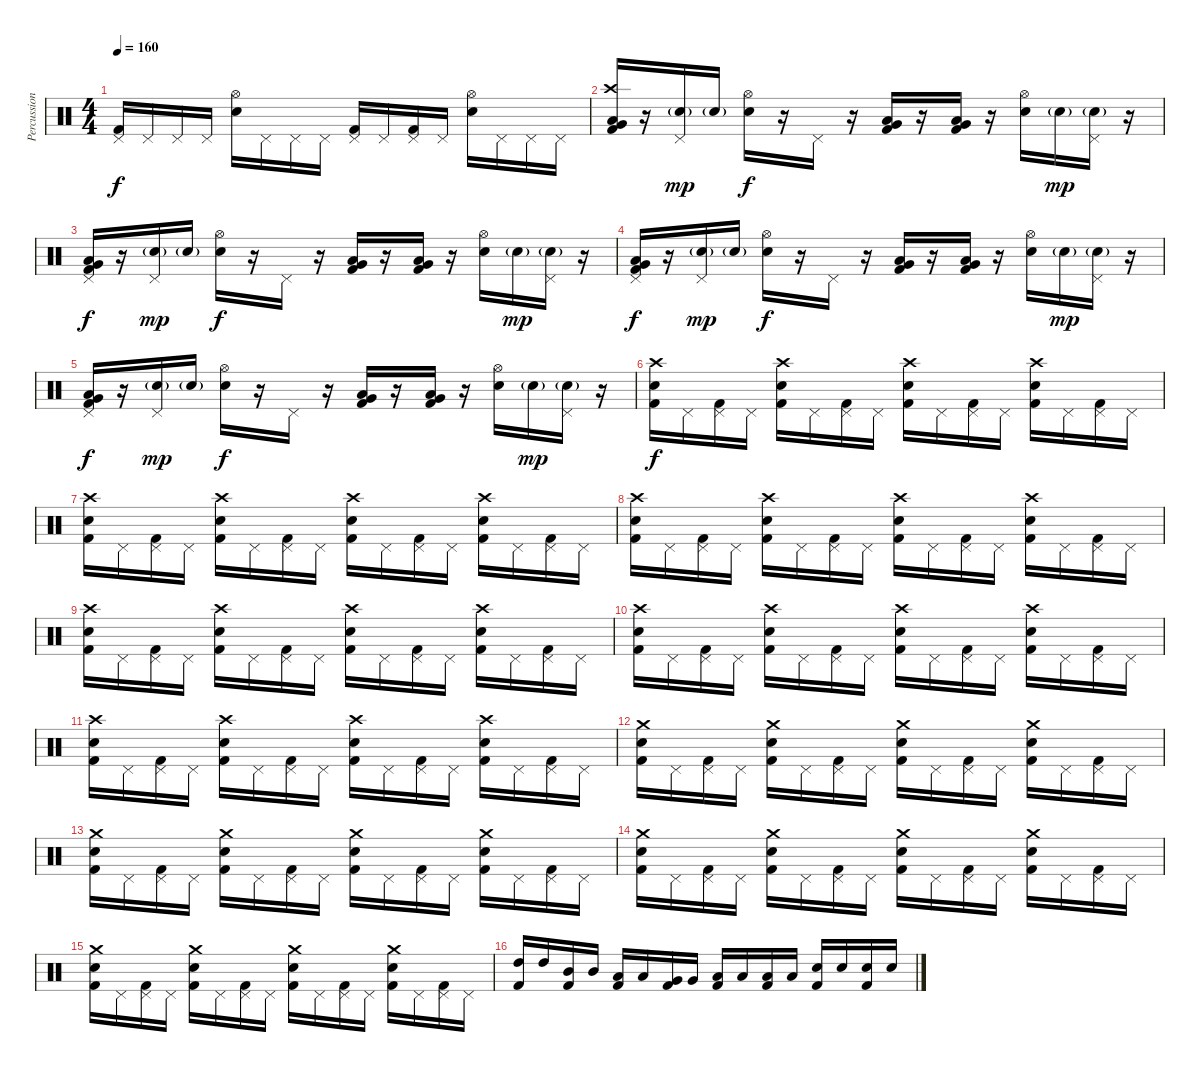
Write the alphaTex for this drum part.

\track ("Percussion" "Percussion") {instrument percussion}
\staff {score}
\articulation defaults
\ts (4 4)
\tempo 160
\clef neutral
\ks c
("Pedal Hi-Hat (hit)" "Kick (hit) 2").16{dy f} "Pedal Hi-Hat (hit)".16 "Pedal Hi-Hat (hit)".16 "Pedal Hi-Hat (hit)".16 ("Hi-Hat (open)" "Electric Snare (hit)").16 "Pedal Hi-Hat (hit)".16 "Pedal Hi-Hat (hit)".16 "Pedal Hi-Hat (hit)".16 ("Pedal Hi-Hat (hit)" "Kick (hit) 2").16 "Pedal Hi-Hat (hit)".16 ("Pedal Hi-Hat (hit)" "Kick (hit) 2").16 "Pedal Hi-Hat (hit)".16 ("Hi-Hat (open)" "Electric Snare (hit)").16 "Pedal Hi-Hat (hit)".16 "Pedal Hi-Hat (hit)".16 "Pedal Hi-Hat (hit)".16 |
("Crash high (hit)" "Low Tom (hit)" "Very Low Tom (hit)" "Kick (hit) 2").16 r.16 ("Pedal Hi-Hat (hit)" "Electric Snare (hit)"{g}).16{dy mp} "Electric Snare (hit)"{g}.16 ("Hi-Hat (open)" "Electric Snare (hit)").16{dy f} r.16 "Pedal Hi-Hat (hit)".16 r.16 ("Very Low Tom (hit)" "Low Floor Tom (hit)" "Kick (hit) 2").16 r.16 ("Very Low Tom (hit)" "Low Floor Tom (hit)" "Kick (hit) 2").16 r.16 ("Hi-Hat (open)" "Electric Snare (hit)").16 "Electric Snare (hit)"{g}.16{dy mp} ("Pedal Hi-Hat (hit)" "Electric Snare (hit)"{g}).16 r.16 |
("Pedal Hi-Hat (hit)" "Low Tom (hit)" "Very Low Tom (hit)" "Kick (hit) 2").16{dy f} r.16 ("Pedal Hi-Hat (hit)" "Electric Snare (hit)"{g}).16{dy mp} "Electric Snare (hit)"{g}.16 ("Hi-Hat (open)" "Electric Snare (hit)").16{dy f} r.16 "Pedal Hi-Hat (hit)".16 r.16 ("Very Low Tom (hit)" "Low Floor Tom (hit)" "Kick (hit) 2").16 r.16 ("Very Low Tom (hit)" "Low Floor Tom (hit)" "Kick (hit) 2").16 r.16 ("Hi-Hat (open)" "Electric Snare (hit)").16 "Electric Snare (hit)"{g}.16{dy mp} ("Pedal Hi-Hat (hit)" "Electric Snare (hit)"{g}).16 r.16 |
("Pedal Hi-Hat (hit)" "Low Tom (hit)" "Very Low Tom (hit)" "Kick (hit) 2").16{dy f} r.16 ("Pedal Hi-Hat (hit)" "Electric Snare (hit)"{g}).16{dy mp} "Electric Snare (hit)"{g}.16 ("Hi-Hat (open)" "Electric Snare (hit)").16{dy f} r.16 "Pedal Hi-Hat (hit)".16 r.16 ("Very Low Tom (hit)" "Low Floor Tom (hit)" "Kick (hit) 2").16 r.16 ("Very Low Tom (hit)" "Low Floor Tom (hit)" "Kick (hit) 2").16 r.16 ("Hi-Hat (open)" "Electric Snare (hit)").16 "Electric Snare (hit)"{g}.16{dy mp} ("Pedal Hi-Hat (hit)" "Electric Snare (hit)"{g}).16 r.16 |
("Pedal Hi-Hat (hit)" "Low Tom (hit)" "Very Low Tom (hit)" "Kick (hit) 2").16{dy f} r.16 ("Pedal Hi-Hat (hit)" "Electric Snare (hit)"{g}).16{dy mp} "Electric Snare (hit)"{g}.16 ("Hi-Hat (open)" "Electric Snare (hit)").16{dy f} r.16 "Pedal Hi-Hat (hit)".16 r.16 ("Very Low Tom (hit)" "Low Floor Tom (hit)" "Kick (hit) 2").16 r.16 ("Very Low Tom (hit)" "Low Floor Tom (hit)" "Kick (hit) 2").16 r.16 ("Hi-Hat (open)" "Electric Snare (hit)").16 "Electric Snare (hit)"{g}.16{dy mp} ("Pedal Hi-Hat (hit)" "Electric Snare (hit)"{g}).16 r.16 |
("Crash high (hit)" "Electric Snare (hit)" "Kick (hit) 2").16{dy f} "Pedal Hi-Hat (hit)".16 ("Pedal Hi-Hat (hit)" "Kick (hit) 2").16 "Pedal Hi-Hat (hit)".16 ("Crash high (hit)" "Electric Snare (hit)" "Kick (hit) 2").16 "Pedal Hi-Hat (hit)".16 ("Pedal Hi-Hat (hit)" "Kick (hit) 2").16 "Pedal Hi-Hat (hit)".16 ("Crash high (hit)" "Electric Snare (hit)" "Kick (hit) 2").16 "Pedal Hi-Hat (hit)".16 ("Pedal Hi-Hat (hit)" "Kick (hit) 2").16 "Pedal Hi-Hat (hit)".16 ("Crash high (hit)" "Electric Snare (hit)" "Kick (hit) 2").16 "Pedal Hi-Hat (hit)".16 ("Pedal Hi-Hat (hit)" "Kick (hit) 2").16 "Pedal Hi-Hat (hit)".16 |
("Crash high (hit)" "Electric Snare (hit)" "Kick (hit) 2").16 "Pedal Hi-Hat (hit)".16 ("Pedal Hi-Hat (hit)" "Kick (hit) 2").16 "Pedal Hi-Hat (hit)".16 ("Crash high (hit)" "Electric Snare (hit)" "Kick (hit) 2").16 "Pedal Hi-Hat (hit)".16 ("Pedal Hi-Hat (hit)" "Kick (hit) 2").16 "Pedal Hi-Hat (hit)".16 ("Crash high (hit)" "Electric Snare (hit)" "Kick (hit) 2").16 "Pedal Hi-Hat (hit)".16 ("Pedal Hi-Hat (hit)" "Kick (hit) 2").16 "Pedal Hi-Hat (hit)".16 ("Crash high (hit)" "Electric Snare (hit)" "Kick (hit) 2").16 "Pedal Hi-Hat (hit)".16 ("Pedal Hi-Hat (hit)" "Kick (hit) 2").16 "Pedal Hi-Hat (hit)".16 |
("Crash high (hit)" "Electric Snare (hit)" "Kick (hit) 2").16 "Pedal Hi-Hat (hit)".16 ("Pedal Hi-Hat (hit)" "Kick (hit) 2").16 "Pedal Hi-Hat (hit)".16 ("Crash high (hit)" "Electric Snare (hit)" "Kick (hit) 2").16 "Pedal Hi-Hat (hit)".16 ("Pedal Hi-Hat (hit)" "Kick (hit) 2").16 "Pedal Hi-Hat (hit)".16 ("Crash high (hit)" "Electric Snare (hit)" "Kick (hit) 2").16 "Pedal Hi-Hat (hit)".16 ("Pedal Hi-Hat (hit)" "Kick (hit) 2").16 "Pedal Hi-Hat (hit)".16 ("Crash high (hit)" "Electric Snare (hit)" "Kick (hit) 2").16 "Pedal Hi-Hat (hit)".16 ("Pedal Hi-Hat (hit)" "Kick (hit) 2").16 "Pedal Hi-Hat (hit)".16 |
("Crash high (hit)" "Electric Snare (hit)" "Kick (hit) 2").16 "Pedal Hi-Hat (hit)".16 ("Pedal Hi-Hat (hit)" "Kick (hit) 2").16 "Pedal Hi-Hat (hit)".16 ("Crash high (hit)" "Electric Snare (hit)" "Kick (hit) 2").16 "Pedal Hi-Hat (hit)".16 ("Pedal Hi-Hat (hit)" "Kick (hit) 2").16 "Pedal Hi-Hat (hit)".16 ("Crash high (hit)" "Electric Snare (hit)" "Kick (hit) 2").16 "Pedal Hi-Hat (hit)".16 ("Pedal Hi-Hat (hit)" "Kick (hit) 2").16 "Pedal Hi-Hat (hit)".16 ("Crash high (hit)" "Electric Snare (hit)" "Kick (hit) 2").16 "Pedal Hi-Hat (hit)".16 ("Pedal Hi-Hat (hit)" "Kick (hit) 2").16 "Pedal Hi-Hat (hit)".16 |
("Crash high (hit)" "Electric Snare (hit)" "Kick (hit) 2").16 "Pedal Hi-Hat (hit)".16 ("Pedal Hi-Hat (hit)" "Kick (hit) 2").16 "Pedal Hi-Hat (hit)".16 ("Crash high (hit)" "Electric Snare (hit)" "Kick (hit) 2").16 "Pedal Hi-Hat (hit)".16 ("Pedal Hi-Hat (hit)" "Kick (hit) 2").16 "Pedal Hi-Hat (hit)".16 ("Crash high (hit)" "Electric Snare (hit)" "Kick (hit) 2").16 "Pedal Hi-Hat (hit)".16 ("Pedal Hi-Hat (hit)" "Kick (hit) 2").16 "Pedal Hi-Hat (hit)".16 ("Crash high (hit)" "Electric Snare (hit)" "Kick (hit) 2").16 "Pedal Hi-Hat (hit)".16 ("Pedal Hi-Hat (hit)" "Kick (hit) 2").16 "Pedal Hi-Hat (hit)".16 |
("Crash high (hit)" "Electric Snare (hit)" "Kick (hit) 2").16 "Pedal Hi-Hat (hit)".16 ("Pedal Hi-Hat (hit)" "Kick (hit) 2").16 "Pedal Hi-Hat (hit)".16 ("Crash high (hit)" "Electric Snare (hit)" "Kick (hit) 2").16 "Pedal Hi-Hat (hit)".16 ("Pedal Hi-Hat (hit)" "Kick (hit) 2").16 "Pedal Hi-Hat (hit)".16 ("Crash high (hit)" "Electric Snare (hit)" "Kick (hit) 2").16 "Pedal Hi-Hat (hit)".16 ("Pedal Hi-Hat (hit)" "Kick (hit) 2").16 "Pedal Hi-Hat (hit)".16 ("Crash high (hit)" "Electric Snare (hit)" "Kick (hit) 2").16 "Pedal Hi-Hat (hit)".16 ("Pedal Hi-Hat (hit)" "Kick (hit) 2").16 "Pedal Hi-Hat (hit)".16 |
("Crash medium (hit)" "Electric Snare (hit)" "Kick (hit) 2").16 "Pedal Hi-Hat (hit)".16 ("Pedal Hi-Hat (hit)" "Kick (hit) 2").16 "Pedal Hi-Hat (hit)".16 ("Crash medium (hit)" "Electric Snare (hit)" "Kick (hit) 2").16 "Pedal Hi-Hat (hit)".16 ("Pedal Hi-Hat (hit)" "Kick (hit) 2").16 "Pedal Hi-Hat (hit)".16 ("Crash medium (hit)" "Electric Snare (hit)" "Kick (hit) 2").16 "Pedal Hi-Hat (hit)".16 ("Pedal Hi-Hat (hit)" "Kick (hit) 2").16 "Pedal Hi-Hat (hit)".16 ("Crash medium (hit)" "Electric Snare (hit)" "Kick (hit) 2").16 "Pedal Hi-Hat (hit)".16 ("Pedal Hi-Hat (hit)" "Kick (hit) 2").16 "Pedal Hi-Hat (hit)".16 |
("Crash medium (hit)" "Electric Snare (hit)" "Kick (hit) 2").16 "Pedal Hi-Hat (hit)".16 ("Pedal Hi-Hat (hit)" "Kick (hit) 2").16 "Pedal Hi-Hat (hit)".16 ("Crash medium (hit)" "Electric Snare (hit)" "Kick (hit) 2").16 "Pedal Hi-Hat (hit)".16 ("Pedal Hi-Hat (hit)" "Kick (hit) 2").16 "Pedal Hi-Hat (hit)".16 ("Crash medium (hit)" "Electric Snare (hit)" "Kick (hit) 2").16 "Pedal Hi-Hat (hit)".16 ("Pedal Hi-Hat (hit)" "Kick (hit) 2").16 "Pedal Hi-Hat (hit)".16 ("Crash medium (hit)" "Electric Snare (hit)" "Kick (hit) 2").16 "Pedal Hi-Hat (hit)".16 ("Pedal Hi-Hat (hit)" "Kick (hit) 2").16 "Pedal Hi-Hat (hit)".16 |
("Crash medium (hit)" "Electric Snare (hit)" "Kick (hit) 2").16 "Pedal Hi-Hat (hit)".16 ("Pedal Hi-Hat (hit)" "Kick (hit) 2").16 "Pedal Hi-Hat (hit)".16 ("Crash medium (hit)" "Electric Snare (hit)" "Kick (hit) 2").16 "Pedal Hi-Hat (hit)".16 ("Pedal Hi-Hat (hit)" "Kick (hit) 2").16 "Pedal Hi-Hat (hit)".16 ("Crash medium (hit)" "Electric Snare (hit)" "Kick (hit) 2").16 "Pedal Hi-Hat (hit)".16 ("Pedal Hi-Hat (hit)" "Kick (hit) 2").16 "Pedal Hi-Hat (hit)".16 ("Crash medium (hit)" "Electric Snare (hit)" "Kick (hit) 2").16 "Pedal Hi-Hat (hit)".16 ("Pedal Hi-Hat (hit)" "Kick (hit) 2").16 "Pedal Hi-Hat (hit)".16 |
("Crash medium (hit)" "Electric Snare (hit)" "Kick (hit) 2").16 "Pedal Hi-Hat (hit)".16 ("Pedal Hi-Hat (hit)" "Kick (hit) 2").16 "Pedal Hi-Hat (hit)".16 ("Crash medium (hit)" "Electric Snare (hit)" "Kick (hit) 2").16 "Pedal Hi-Hat (hit)".16 ("Pedal Hi-Hat (hit)" "Kick (hit) 2").16 "Pedal Hi-Hat (hit)".16 ("Crash medium (hit)" "Electric Snare (hit)" "Kick (hit) 2").16 "Pedal Hi-Hat (hit)".16 ("Pedal Hi-Hat (hit)" "Kick (hit) 2").16 "Pedal Hi-Hat (hit)".16 ("Crash medium (hit)" "Electric Snare (hit)" "Kick (hit) 2").16 "Pedal Hi-Hat (hit)".16 ("Pedal Hi-Hat (hit)" "Kick (hit) 2").16 "Pedal Hi-Hat (hit)".16 |
("High Tom (hit)" "Kick (hit) 2").16 "High Tom (hit)".16 ("Mid Tom (hit)" "Kick (hit) 2").16 "Mid Tom (hit)".16 ("Low Tom (hit)" "Kick (hit) 2").16 "Low Tom (hit)".16 ("Very Low Tom (hit)" "Kick (hit) 2").16 "Very Low Tom (hit)".16 ("Low Floor Tom (hit)" "Kick (hit) 2").16 "Low Floor Tom (hit)".16 ("Low Floor Tom (hit)" "Kick (hit) 2").16 "Low Floor Tom (hit)".16 ("Electric Snare (hit)" "Kick (hit) 2").16 "Electric Snare (hit)".16 ("Electric Snare (hit)" "Kick (hit) 2").16 "Electric Snare (hit)".16
